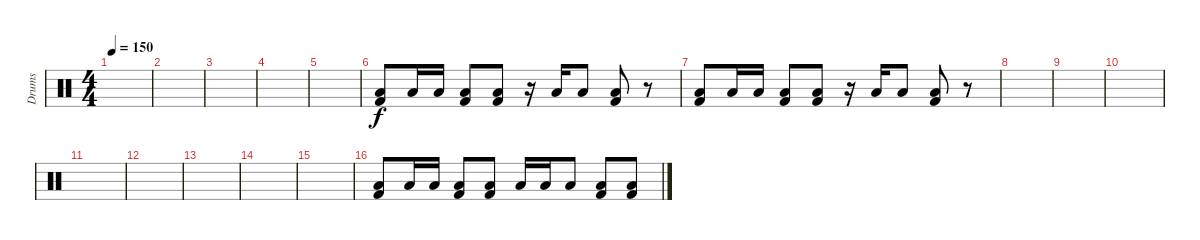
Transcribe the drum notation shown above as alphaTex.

\track ("Drums" "Drums") {instrument percussion}
\staff {score}
\articulation defaults
\ts (4 4)
\tempo 150
\clef neutral
\ks c
|
|
|
|
|
("Low Tom (hit)" "Kick (hit) 2").8 "Low Tom (hit)".16 "Low Tom (hit)".16 ("Low Tom (hit)" "Kick (hit) 2").8 ("Low Tom (hit)" "Kick (hit) 2").8 r.16 "Low Tom (hit)".16 "Low Tom (hit)".8 ("Low Tom (hit)" "Kick (hit) 2").8 r.8 |
("Low Tom (hit)" "Kick (hit) 2").8 "Low Tom (hit)".16 "Low Tom (hit)".16 ("Low Tom (hit)" "Kick (hit) 2").8 ("Low Tom (hit)" "Kick (hit) 2").8 r.16 "Low Tom (hit)".16 "Low Tom (hit)".8 ("Low Tom (hit)" "Kick (hit) 2").8 r.8 |
|
|
|
|
|
|
|
|
("Low Tom (hit)" "Kick (hit) 2").8 "Low Tom (hit)".16 "Low Tom (hit)".16 ("Low Tom (hit)" "Kick (hit) 2").8 ("Low Tom (hit)" "Kick (hit) 2").8 "Low Tom (hit)".16 "Low Tom (hit)".16 "Low Tom (hit)".8 ("Low Tom (hit)" "Kick (hit) 2").8 ("Low Tom (hit)" "Kick (hit) 2").8
